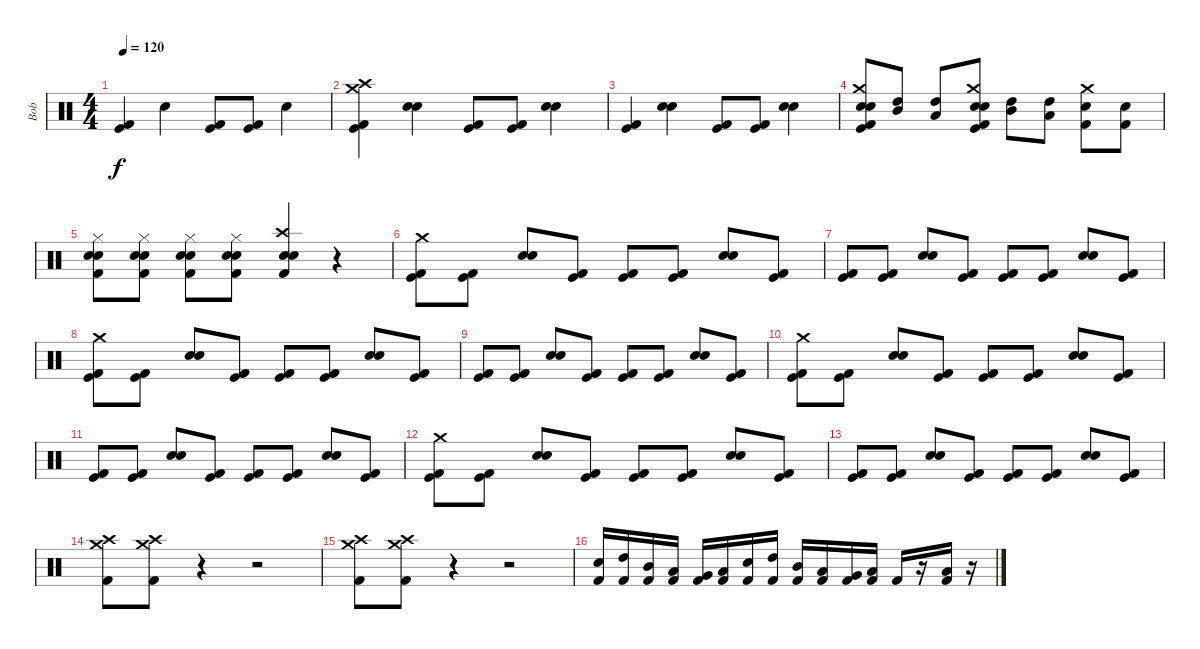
\track ("Bob" "Bob") {instrument percussion}
\staff {score}
\articulation defaults
\ts (4 4)
\tempo 120
\clef neutral
\ks c
("Kick (hit)" "Kick (hit) 2").4{dy f} "Snare (hit) 2".4 ("Kick (hit)" "Kick (hit) 2").8 ("Kick (hit)" "Kick (hit) 2").8 "Snare (hit) 2".4 |
("Crash medium (hit)" "Crash high (hit)" "Kick (hit)" "Kick (hit) 2").4 ("Electric Snare (hit)" "Snare (hit) 2").4 ("Kick (hit)" "Kick (hit) 2").8 ("Kick (hit)" "Kick (hit) 2").8 ("Electric Snare (hit)" "Snare (hit) 2").4 |
("Kick (hit)" "Kick (hit) 2").4 ("Electric Snare (hit)" "Snare (hit) 2").4 ("Kick (hit)" "Kick (hit) 2").8 ("Kick (hit)" "Kick (hit) 2").8 ("Electric Snare (hit)" "Snare (hit) 2").4 |
("Crash medium (hit)" "Electric Snare (hit)" "Snare (hit) 2" "Kick (hit)" "Kick (hit) 2").8 ("Mid Tom (hit)" "High Tom (hit)").8 ("High Tom (hit)" "Low Tom (hit)").8 ("Crash medium (hit)" "Electric Snare (hit)" "Snare (hit) 2" "Kick (hit)" "Kick (hit) 2").8 ("Mid Tom (hit)" "High Tom (hit)").8 ("High Tom (hit)" "Low Tom (hit)").8 ("Crash medium (hit)" "Snare (hit) 2" "Kick (hit) 2").8 ("Snare (hit) 2" "Kick (hit) 2").8 |
("Hi-Hat (closed)" "Snare (hit) 2" "Electric Snare (hit)" "Kick (hit) 2").8 ("Hi-Hat (closed)" "Snare (hit) 2" "Electric Snare (hit)" "Kick (hit) 2").8 ("Hi-Hat (closed)" "Snare (hit) 2" "Electric Snare (hit)" "Kick (hit) 2").8 ("Hi-Hat (closed)" "Snare (hit) 2" "Electric Snare (hit)" "Kick (hit) 2").8 ("Crash high (hit)" "Snare (hit) 2" "Electric Snare (hit)" "Kick (hit) 2").4 r.4 |
("Crash medium (hit)" "Kick (hit)" "Kick (hit) 2").8 ("Kick (hit)" "Kick (hit) 2").8 ("Electric Snare (hit)" "Snare (hit) 2").8 ("Kick (hit)" "Kick (hit) 2").8 ("Kick (hit)" "Kick (hit) 2").8 ("Kick (hit)" "Kick (hit) 2").8 ("Electric Snare (hit)" "Snare (hit) 2").8 ("Kick (hit)" "Kick (hit) 2").8 |
("Kick (hit)" "Kick (hit) 2").8 ("Kick (hit)" "Kick (hit) 2").8 ("Electric Snare (hit)" "Snare (hit) 2").8 ("Kick (hit)" "Kick (hit) 2").8 ("Kick (hit)" "Kick (hit) 2").8 ("Kick (hit)" "Kick (hit) 2").8 ("Electric Snare (hit)" "Snare (hit) 2").8 ("Kick (hit)" "Kick (hit) 2").8 |
("Crash medium (hit)" "Kick (hit)" "Kick (hit) 2").8 ("Kick (hit)" "Kick (hit) 2").8 ("Electric Snare (hit)" "Snare (hit) 2").8 ("Kick (hit)" "Kick (hit) 2").8 ("Kick (hit)" "Kick (hit) 2").8 ("Kick (hit)" "Kick (hit) 2").8 ("Electric Snare (hit)" "Snare (hit) 2").8 ("Kick (hit)" "Kick (hit) 2").8 |
("Kick (hit)" "Kick (hit) 2").8 ("Kick (hit)" "Kick (hit) 2").8 ("Electric Snare (hit)" "Snare (hit) 2").8 ("Kick (hit)" "Kick (hit) 2").8 ("Kick (hit)" "Kick (hit) 2").8 ("Kick (hit)" "Kick (hit) 2").8 ("Electric Snare (hit)" "Snare (hit) 2").8 ("Kick (hit)" "Kick (hit) 2").8 |
("Crash medium (hit)" "Kick (hit)" "Kick (hit) 2").8 ("Kick (hit)" "Kick (hit) 2").8 ("Electric Snare (hit)" "Snare (hit) 2").8 ("Kick (hit)" "Kick (hit) 2").8 ("Kick (hit)" "Kick (hit) 2").8 ("Kick (hit)" "Kick (hit) 2").8 ("Electric Snare (hit)" "Snare (hit) 2").8 ("Kick (hit)" "Kick (hit) 2").8 |
("Kick (hit)" "Kick (hit) 2").8 ("Kick (hit)" "Kick (hit) 2").8 ("Electric Snare (hit)" "Snare (hit) 2").8 ("Kick (hit)" "Kick (hit) 2").8 ("Kick (hit)" "Kick (hit) 2").8 ("Kick (hit)" "Kick (hit) 2").8 ("Electric Snare (hit)" "Snare (hit) 2").8 ("Kick (hit)" "Kick (hit) 2").8 |
("Crash medium (hit)" "Kick (hit)" "Kick (hit) 2").8 ("Kick (hit)" "Kick (hit) 2").8 ("Electric Snare (hit)" "Snare (hit) 2").8 ("Kick (hit)" "Kick (hit) 2").8 ("Kick (hit)" "Kick (hit) 2").8 ("Kick (hit)" "Kick (hit) 2").8 ("Electric Snare (hit)" "Snare (hit) 2").8 ("Kick (hit)" "Kick (hit) 2").8 |
("Kick (hit)" "Kick (hit) 2").8 ("Kick (hit)" "Kick (hit) 2").8 ("Electric Snare (hit)" "Snare (hit) 2").8 ("Kick (hit)" "Kick (hit) 2").8 ("Kick (hit)" "Kick (hit) 2").8 ("Kick (hit)" "Kick (hit) 2").8 ("Electric Snare (hit)" "Snare (hit) 2").8 ("Kick (hit)" "Kick (hit) 2").8 |
("Crash high (hit)" "Crash medium (hit)" "Kick (hit) 2").8 ("Crash high (hit)" "Crash medium (hit)" "Kick (hit) 2").8 r.4 r.2 |
("Crash high (hit)" "Crash medium (hit)" "Kick (hit) 2").8 ("Crash high (hit)" "Crash medium (hit)" "Kick (hit) 2").8 r.4 r.2 |
("Snare (hit) 2" "Kick (hit) 2").16 ("High Tom (hit)" "Kick (hit) 2").16 ("Mid Tom (hit)" "Kick (hit) 2").16 ("Low Tom (hit)" "Kick (hit) 2").16 ("Very Low Tom (hit)" "Kick (hit) 2").16 ("Low Floor Tom (hit)" "Kick (hit) 2").16 ("Snare (hit) 2" "Kick (hit) 2").16 ("High Tom (hit)" "Kick (hit) 2").16 ("Mid Tom (hit)" "Kick (hit) 2").16 ("Low Tom (hit)" "Kick (hit) 2").16 ("Very Low Tom (hit)" "Kick (hit) 2").16 ("Low Floor Tom (hit)" "Kick (hit) 2").16 "Kick (hit) 2".16 r.16 ("Low Tom (hit)" "Kick (hit) 2").16 r.16
